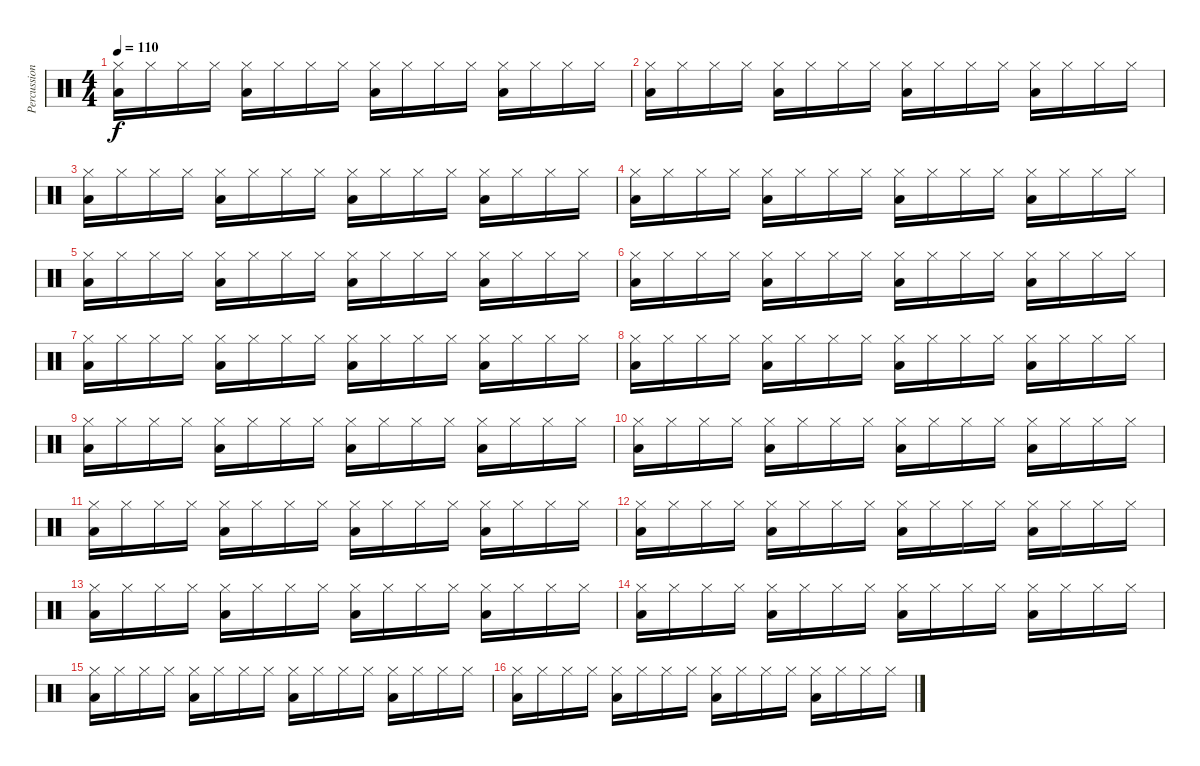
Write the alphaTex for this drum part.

\track ("Percussions" "Percussion") {instrument percussion}
\staff {score}
\articulation defaults
\ts (4 4)
\tempo 110
\clef neutral
\ks c
("Hi-Hat (closed)" "Low Floor Tom (hit)").16{dy f} "Hi-Hat (closed)".16 "Hi-Hat (closed)".16 "Hi-Hat (closed)".16 ("Hi-Hat (closed)" "Low Floor Tom (hit)").16 "Hi-Hat (closed)".16 "Hi-Hat (closed)".16 "Hi-Hat (closed)".16 ("Hi-Hat (closed)" "Low Floor Tom (hit)").16 "Hi-Hat (closed)".16 "Hi-Hat (closed)".16 "Hi-Hat (closed)".16 ("Hi-Hat (closed)" "Low Floor Tom (hit)").16 "Hi-Hat (closed)".16 "Hi-Hat (closed)".16 "Hi-Hat (closed)".16 |
("Hi-Hat (closed)" "Low Floor Tom (hit)").16 "Hi-Hat (closed)".16 "Hi-Hat (closed)".16 "Hi-Hat (closed)".16 ("Hi-Hat (closed)" "Low Floor Tom (hit)").16 "Hi-Hat (closed)".16 "Hi-Hat (closed)".16 "Hi-Hat (closed)".16 ("Hi-Hat (closed)" "Low Floor Tom (hit)").16 "Hi-Hat (closed)".16 "Hi-Hat (closed)".16 "Hi-Hat (closed)".16 ("Hi-Hat (closed)" "Low Floor Tom (hit)").16 "Hi-Hat (closed)".16 "Hi-Hat (closed)".16 "Hi-Hat (closed)".16 |
("Hi-Hat (closed)" "Low Floor Tom (hit)").16 "Hi-Hat (closed)".16 "Hi-Hat (closed)".16 "Hi-Hat (closed)".16 ("Hi-Hat (closed)" "Low Floor Tom (hit)").16 "Hi-Hat (closed)".16 "Hi-Hat (closed)".16 "Hi-Hat (closed)".16 ("Hi-Hat (closed)" "Low Floor Tom (hit)").16 "Hi-Hat (closed)".16 "Hi-Hat (closed)".16 "Hi-Hat (closed)".16 ("Hi-Hat (closed)" "Low Floor Tom (hit)").16 "Hi-Hat (closed)".16 "Hi-Hat (closed)".16 "Hi-Hat (closed)".16 |
("Hi-Hat (closed)" "Low Floor Tom (hit)").16 "Hi-Hat (closed)".16 "Hi-Hat (closed)".16 "Hi-Hat (closed)".16 ("Hi-Hat (closed)" "Low Floor Tom (hit)").16 "Hi-Hat (closed)".16 "Hi-Hat (closed)".16 "Hi-Hat (closed)".16 ("Hi-Hat (closed)" "Low Floor Tom (hit)").16 "Hi-Hat (closed)".16 "Hi-Hat (closed)".16 "Hi-Hat (closed)".16 ("Hi-Hat (closed)" "Low Floor Tom (hit)").16 "Hi-Hat (closed)".16 "Hi-Hat (closed)".16 "Hi-Hat (closed)".16 |
("Hi-Hat (closed)" "Low Floor Tom (hit)").16 "Hi-Hat (closed)".16 "Hi-Hat (closed)".16 "Hi-Hat (closed)".16 ("Hi-Hat (closed)" "Low Floor Tom (hit)").16 "Hi-Hat (closed)".16 "Hi-Hat (closed)".16 "Hi-Hat (closed)".16 ("Hi-Hat (closed)" "Low Floor Tom (hit)").16 "Hi-Hat (closed)".16 "Hi-Hat (closed)".16 "Hi-Hat (closed)".16 ("Hi-Hat (closed)" "Low Floor Tom (hit)").16 "Hi-Hat (closed)".16 "Hi-Hat (closed)".16 "Hi-Hat (closed)".16 |
("Hi-Hat (closed)" "Low Floor Tom (hit)").16 "Hi-Hat (closed)".16 "Hi-Hat (closed)".16 "Hi-Hat (closed)".16 ("Hi-Hat (closed)" "Low Floor Tom (hit)").16 "Hi-Hat (closed)".16 "Hi-Hat (closed)".16 "Hi-Hat (closed)".16 ("Hi-Hat (closed)" "Low Floor Tom (hit)").16 "Hi-Hat (closed)".16 "Hi-Hat (closed)".16 "Hi-Hat (closed)".16 ("Hi-Hat (closed)" "Low Floor Tom (hit)").16 "Hi-Hat (closed)".16 "Hi-Hat (closed)".16 "Hi-Hat (closed)".16 |
("Hi-Hat (closed)" "Low Floor Tom (hit)").16 "Hi-Hat (closed)".16 "Hi-Hat (closed)".16 "Hi-Hat (closed)".16 ("Hi-Hat (closed)" "Low Floor Tom (hit)").16 "Hi-Hat (closed)".16 "Hi-Hat (closed)".16 "Hi-Hat (closed)".16 ("Hi-Hat (closed)" "Low Floor Tom (hit)").16 "Hi-Hat (closed)".16 "Hi-Hat (closed)".16 "Hi-Hat (closed)".16 ("Hi-Hat (closed)" "Low Floor Tom (hit)").16 "Hi-Hat (closed)".16 "Hi-Hat (closed)".16 "Hi-Hat (closed)".16 |
("Hi-Hat (closed)" "Low Floor Tom (hit)").16 "Hi-Hat (closed)".16 "Hi-Hat (closed)".16 "Hi-Hat (closed)".16 ("Hi-Hat (closed)" "Low Floor Tom (hit)").16 "Hi-Hat (closed)".16 "Hi-Hat (closed)".16 "Hi-Hat (closed)".16 ("Hi-Hat (closed)" "Low Floor Tom (hit)").16 "Hi-Hat (closed)".16 "Hi-Hat (closed)".16 "Hi-Hat (closed)".16 ("Hi-Hat (closed)" "Low Floor Tom (hit)").16 "Hi-Hat (closed)".16 "Hi-Hat (closed)".16 "Hi-Hat (closed)".16 |
("Hi-Hat (closed)" "Low Floor Tom (hit)").16 "Hi-Hat (closed)".16 "Hi-Hat (closed)".16 "Hi-Hat (closed)".16 ("Hi-Hat (closed)" "Low Floor Tom (hit)").16 "Hi-Hat (closed)".16 "Hi-Hat (closed)".16 "Hi-Hat (closed)".16 ("Hi-Hat (closed)" "Low Floor Tom (hit)").16 "Hi-Hat (closed)".16 "Hi-Hat (closed)".16 "Hi-Hat (closed)".16 ("Hi-Hat (closed)" "Low Floor Tom (hit)").16 "Hi-Hat (closed)".16 "Hi-Hat (closed)".16 "Hi-Hat (closed)".16 |
("Hi-Hat (closed)" "Low Floor Tom (hit)").16 "Hi-Hat (closed)".16 "Hi-Hat (closed)".16 "Hi-Hat (closed)".16 ("Hi-Hat (closed)" "Low Floor Tom (hit)").16 "Hi-Hat (closed)".16 "Hi-Hat (closed)".16 "Hi-Hat (closed)".16 ("Hi-Hat (closed)" "Low Floor Tom (hit)").16 "Hi-Hat (closed)".16 "Hi-Hat (closed)".16 "Hi-Hat (closed)".16 ("Hi-Hat (closed)" "Low Floor Tom (hit)").16 "Hi-Hat (closed)".16 "Hi-Hat (closed)".16 "Hi-Hat (closed)".16 |
("Hi-Hat (closed)" "Low Floor Tom (hit)").16 "Hi-Hat (closed)".16 "Hi-Hat (closed)".16 "Hi-Hat (closed)".16 ("Hi-Hat (closed)" "Low Floor Tom (hit)").16 "Hi-Hat (closed)".16 "Hi-Hat (closed)".16 "Hi-Hat (closed)".16 ("Hi-Hat (closed)" "Low Floor Tom (hit)").16 "Hi-Hat (closed)".16 "Hi-Hat (closed)".16 "Hi-Hat (closed)".16 ("Hi-Hat (closed)" "Low Floor Tom (hit)").16 "Hi-Hat (closed)".16 "Hi-Hat (closed)".16 "Hi-Hat (closed)".16 |
("Hi-Hat (closed)" "Low Floor Tom (hit)").16 "Hi-Hat (closed)".16 "Hi-Hat (closed)".16 "Hi-Hat (closed)".16 ("Hi-Hat (closed)" "Low Floor Tom (hit)").16 "Hi-Hat (closed)".16 "Hi-Hat (closed)".16 "Hi-Hat (closed)".16 ("Hi-Hat (closed)" "Low Floor Tom (hit)").16 "Hi-Hat (closed)".16 "Hi-Hat (closed)".16 "Hi-Hat (closed)".16 ("Hi-Hat (closed)" "Low Floor Tom (hit)").16 "Hi-Hat (closed)".16 "Hi-Hat (closed)".16 "Hi-Hat (closed)".16 |
("Hi-Hat (closed)" "Low Floor Tom (hit)").16 "Hi-Hat (closed)".16 "Hi-Hat (closed)".16 "Hi-Hat (closed)".16 ("Hi-Hat (closed)" "Low Floor Tom (hit)").16 "Hi-Hat (closed)".16 "Hi-Hat (closed)".16 "Hi-Hat (closed)".16 ("Hi-Hat (closed)" "Low Floor Tom (hit)").16 "Hi-Hat (closed)".16 "Hi-Hat (closed)".16 "Hi-Hat (closed)".16 ("Hi-Hat (closed)" "Low Floor Tom (hit)").16 "Hi-Hat (closed)".16 "Hi-Hat (closed)".16 "Hi-Hat (closed)".16 |
("Hi-Hat (closed)" "Low Floor Tom (hit)").16 "Hi-Hat (closed)".16 "Hi-Hat (closed)".16 "Hi-Hat (closed)".16 ("Hi-Hat (closed)" "Low Floor Tom (hit)").16 "Hi-Hat (closed)".16 "Hi-Hat (closed)".16 "Hi-Hat (closed)".16 ("Hi-Hat (closed)" "Low Floor Tom (hit)").16 "Hi-Hat (closed)".16 "Hi-Hat (closed)".16 "Hi-Hat (closed)".16 ("Hi-Hat (closed)" "Low Floor Tom (hit)").16 "Hi-Hat (closed)".16 "Hi-Hat (closed)".16 "Hi-Hat (closed)".16 |
("Hi-Hat (closed)" "Low Floor Tom (hit)").16 "Hi-Hat (closed)".16 "Hi-Hat (closed)".16 "Hi-Hat (closed)".16 ("Hi-Hat (closed)" "Low Floor Tom (hit)").16 "Hi-Hat (closed)".16 "Hi-Hat (closed)".16 "Hi-Hat (closed)".16 ("Hi-Hat (closed)" "Low Floor Tom (hit)").16 "Hi-Hat (closed)".16 "Hi-Hat (closed)".16 "Hi-Hat (closed)".16 ("Hi-Hat (closed)" "Low Floor Tom (hit)").16 "Hi-Hat (closed)".16 "Hi-Hat (closed)".16 "Hi-Hat (closed)".16 |
("Hi-Hat (closed)" "Low Floor Tom (hit)").16 "Hi-Hat (closed)".16 "Hi-Hat (closed)".16 "Hi-Hat (closed)".16 ("Hi-Hat (closed)" "Low Floor Tom (hit)").16 "Hi-Hat (closed)".16 "Hi-Hat (closed)".16 "Hi-Hat (closed)".16 ("Hi-Hat (closed)" "Low Floor Tom (hit)").16 "Hi-Hat (closed)".16 "Hi-Hat (closed)".16 "Hi-Hat (closed)".16 ("Hi-Hat (closed)" "Low Floor Tom (hit)").16 "Hi-Hat (closed)".16 "Hi-Hat (closed)".16 "Hi-Hat (closed)".16
